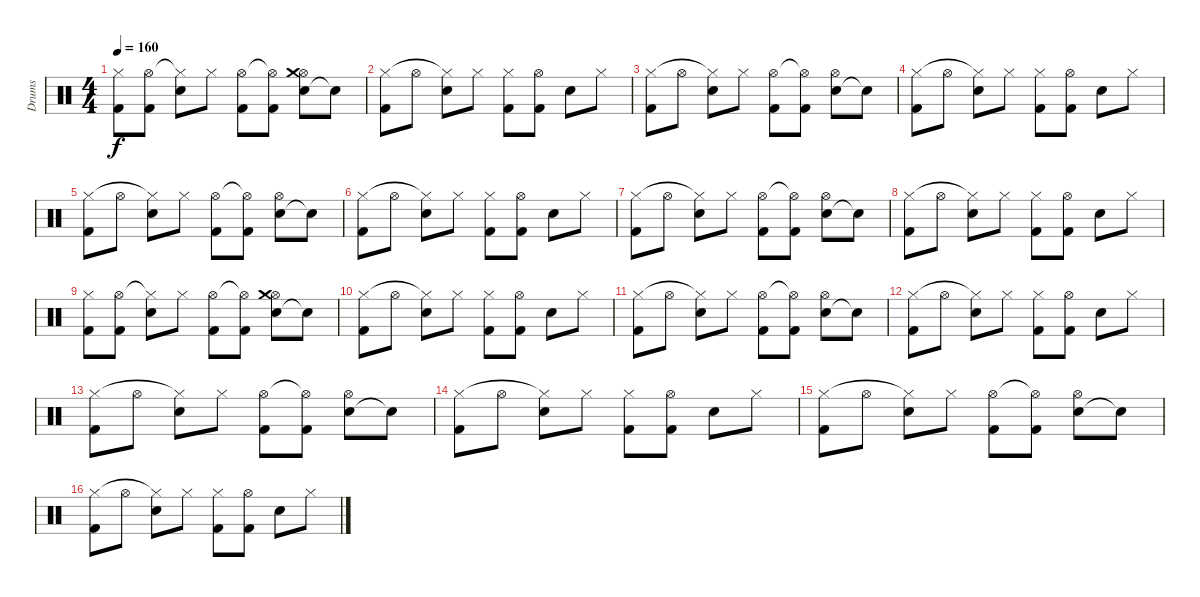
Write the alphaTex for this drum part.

\track ("Drums" "Drums") {instrument percussion}
\staff {score}
\articulation defaults
\ts (4 4)
\tempo 160
\clef neutral
\ks c
("Kick (hit) 2" "Hi-Hat (closed)").8{dy f} ("Kick (hit) 2" "Hi-Hat (open)").8 ("Snare (hit) 2" "Hi-Hat (closed)"{t}).8 "Hi-Hat (closed)".8 ("Kick (hit) 2" "Hi-Hat (open)").8 ("Kick (hit) 2" "Hi-Hat (open)"{t}).8 ("Snare (hit) 2" "Hi-Hat (open)" "Crash medium (hit)").8 "Snare (hit)"{t}.8 |
("Kick (hit) 2" "Hi-Hat (closed)").8 "Hi-Hat (open)".8 ("Snare (hit) 2" "Hi-Hat (closed)"{t}).8 "Hi-Hat (closed)".8 ("Kick (hit) 2" "Hi-Hat (closed)").8 ("Kick (hit) 2" "Hi-Hat (open)").8 "Snare (hit) 2".8 "Hi-Hat (closed)".8 |
("Kick (hit) 2" "Hi-Hat (closed)").8 "Hi-Hat (open)".8 ("Snare (hit) 2" "Hi-Hat (closed)"{t}).8 "Hi-Hat (closed)".8 ("Kick (hit) 2" "Hi-Hat (open)").8 ("Kick (hit) 2" "Hi-Hat (open)"{t}).8 ("Snare (hit) 2" "Hi-Hat (open)").8 "Snare (hit)"{t}.8 |
("Kick (hit) 2" "Hi-Hat (closed)").8 "Hi-Hat (open)".8 ("Snare (hit) 2" "Hi-Hat (closed)"{t}).8 "Hi-Hat (closed)".8 ("Kick (hit) 2" "Hi-Hat (closed)").8 ("Kick (hit) 2" "Hi-Hat (open)").8 "Snare (hit) 2".8 "Hi-Hat (closed)".8 |
("Kick (hit) 2" "Hi-Hat (closed)").8 "Hi-Hat (open)".8 ("Snare (hit) 2" "Hi-Hat (closed)"{t}).8 "Hi-Hat (closed)".8 ("Kick (hit) 2" "Hi-Hat (open)").8 ("Kick (hit) 2" "Hi-Hat (open)"{t}).8 ("Snare (hit) 2" "Hi-Hat (open)").8 "Snare (hit)"{t}.8 |
("Kick (hit) 2" "Hi-Hat (closed)").8 "Hi-Hat (open)".8 ("Snare (hit) 2" "Hi-Hat (closed)"{t}).8 "Hi-Hat (closed)".8 ("Kick (hit) 2" "Hi-Hat (closed)").8 ("Kick (hit) 2" "Hi-Hat (open)").8 "Snare (hit) 2".8 "Hi-Hat (closed)".8 |
("Kick (hit) 2" "Hi-Hat (closed)").8 "Hi-Hat (open)".8 ("Snare (hit) 2" "Hi-Hat (closed)"{t}).8 "Hi-Hat (closed)".8 ("Kick (hit) 2" "Hi-Hat (open)").8 ("Kick (hit) 2" "Hi-Hat (open)"{t}).8 ("Snare (hit) 2" "Hi-Hat (open)").8 "Snare (hit)"{t}.8 |
("Kick (hit) 2" "Hi-Hat (closed)").8 "Hi-Hat (open)".8 ("Snare (hit) 2" "Hi-Hat (closed)"{t}).8 "Hi-Hat (closed)".8 ("Kick (hit) 2" "Hi-Hat (closed)").8 ("Kick (hit) 2" "Hi-Hat (open)").8 "Snare (hit) 2".8 "Hi-Hat (closed)".8 |
("Kick (hit) 2" "Hi-Hat (closed)").8 ("Kick (hit) 2" "Hi-Hat (open)").8 ("Snare (hit) 2" "Hi-Hat (closed)"{t}).8 "Hi-Hat (closed)".8 ("Kick (hit) 2" "Hi-Hat (open)").8 ("Kick (hit) 2" "Hi-Hat (open)"{t}).8 ("Snare (hit) 2" "Hi-Hat (open)" "Crash medium (hit)").8 "Snare (hit)"{t}.8 |
("Kick (hit) 2" "Hi-Hat (closed)").8 "Hi-Hat (open)".8 ("Snare (hit) 2" "Hi-Hat (closed)"{t}).8 "Hi-Hat (closed)".8 ("Kick (hit) 2" "Hi-Hat (closed)").8 ("Kick (hit) 2" "Hi-Hat (open)").8 "Snare (hit) 2".8 "Hi-Hat (closed)".8 |
("Kick (hit) 2" "Hi-Hat (closed)").8 "Hi-Hat (open)".8 ("Snare (hit) 2" "Hi-Hat (closed)"{t}).8 "Hi-Hat (closed)".8 ("Kick (hit) 2" "Hi-Hat (open)").8 ("Kick (hit) 2" "Hi-Hat (open)"{t}).8 ("Snare (hit) 2" "Hi-Hat (open)").8 "Snare (hit)"{t}.8 |
("Kick (hit) 2" "Hi-Hat (closed)").8 "Hi-Hat (open)".8 ("Snare (hit) 2" "Hi-Hat (closed)"{t}).8 "Hi-Hat (closed)".8 ("Kick (hit) 2" "Hi-Hat (closed)").8 ("Kick (hit) 2" "Hi-Hat (open)").8 "Snare (hit) 2".8 "Hi-Hat (closed)".8 |
("Kick (hit) 2" "Hi-Hat (closed)").8 "Hi-Hat (open)".8 ("Snare (hit) 2" "Hi-Hat (closed)"{t}).8 "Hi-Hat (closed)".8 ("Kick (hit) 2" "Hi-Hat (open)").8 ("Kick (hit) 2" "Hi-Hat (open)"{t}).8 ("Snare (hit) 2" "Hi-Hat (open)").8 "Snare (hit)"{t}.8 |
("Kick (hit) 2" "Hi-Hat (closed)").8 "Hi-Hat (open)".8 ("Snare (hit) 2" "Hi-Hat (closed)"{t}).8 "Hi-Hat (closed)".8 ("Kick (hit) 2" "Hi-Hat (closed)").8 ("Kick (hit) 2" "Hi-Hat (open)").8 "Snare (hit) 2".8 "Hi-Hat (closed)".8 |
("Kick (hit) 2" "Hi-Hat (closed)").8 "Hi-Hat (open)".8 ("Snare (hit) 2" "Hi-Hat (closed)"{t}).8 "Hi-Hat (closed)".8 ("Kick (hit) 2" "Hi-Hat (open)").8 ("Kick (hit) 2" "Hi-Hat (open)"{t}).8 ("Snare (hit) 2" "Hi-Hat (open)").8 "Snare (hit)"{t}.8 |
("Kick (hit) 2" "Hi-Hat (closed)").8 "Hi-Hat (open)".8 ("Snare (hit) 2" "Hi-Hat (closed)"{t}).8 "Hi-Hat (closed)".8 ("Kick (hit) 2" "Hi-Hat (closed)").8 ("Kick (hit) 2" "Hi-Hat (open)").8 "Snare (hit) 2".8 "Hi-Hat (closed)".8
